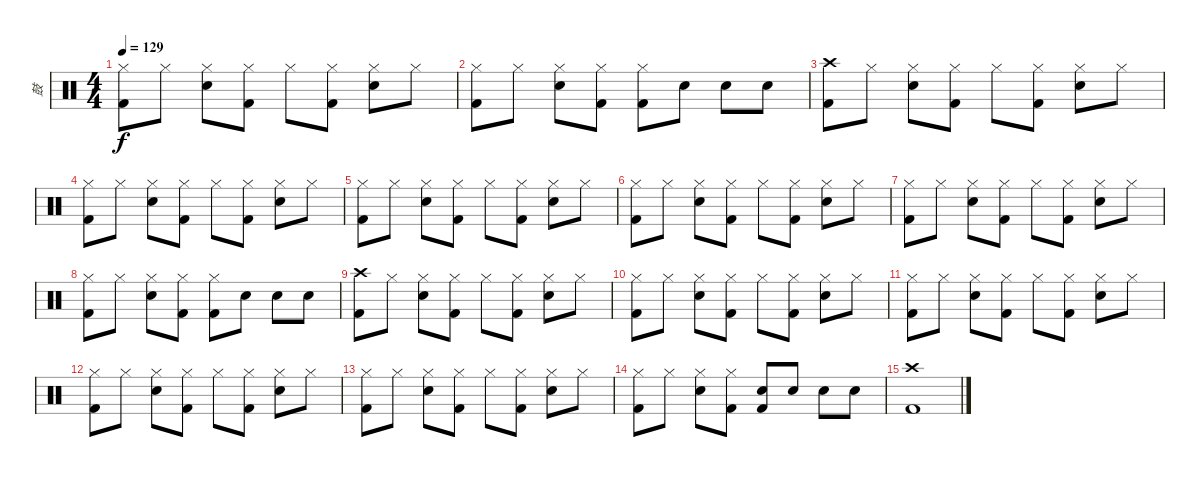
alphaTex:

\track ("鼓" "鼓") {instrument percussion}
\staff {score}
\articulation defaults
\ts (4 4)
\tempo 129
\clef neutral
\ks c
("Hi-Hat (closed)" "Kick (hit) 2").8{dy f} "Hi-Hat (closed)".8 ("Hi-Hat (closed)" "Snare (hit) 2").8 ("Hi-Hat (closed)" "Kick (hit) 2").8 "Hi-Hat (closed)".8 ("Hi-Hat (closed)" "Kick (hit) 2").8 ("Hi-Hat (closed)" "Snare (hit) 2").8 "Hi-Hat (closed)".8 |
("Hi-Hat (closed)" "Kick (hit) 2").8 "Hi-Hat (closed)".8 ("Hi-Hat (closed)" "Snare (hit) 2").8 ("Hi-Hat (closed)" "Kick (hit) 2").8 ("Hi-Hat (closed)" "Kick (hit) 2").8 "Snare (hit) 2".8 "Snare (hit) 2".8 "Snare (hit) 2".8 |
("Crash high (hit)" "Kick (hit) 2").8 "Hi-Hat (closed)".8 ("Hi-Hat (closed)" "Snare (hit) 2").8 ("Hi-Hat (closed)" "Kick (hit) 2").8 "Hi-Hat (closed)".8 ("Hi-Hat (closed)" "Kick (hit) 2").8 ("Hi-Hat (closed)" "Snare (hit) 2").8 "Hi-Hat (closed)".8 |
("Hi-Hat (closed)" "Kick (hit) 2").8 "Hi-Hat (closed)".8 ("Hi-Hat (closed)" "Snare (hit) 2").8 ("Hi-Hat (closed)" "Kick (hit) 2").8 "Hi-Hat (closed)".8 ("Hi-Hat (closed)" "Kick (hit) 2").8 ("Hi-Hat (closed)" "Snare (hit) 2").8 "Hi-Hat (closed)".8 |
("Hi-Hat (closed)" "Kick (hit) 2").8 "Hi-Hat (closed)".8 ("Hi-Hat (closed)" "Snare (hit) 2").8 ("Hi-Hat (closed)" "Kick (hit) 2").8 "Hi-Hat (closed)".8 ("Hi-Hat (closed)" "Kick (hit) 2").8 ("Hi-Hat (closed)" "Snare (hit) 2").8 "Hi-Hat (closed)".8 |
("Hi-Hat (closed)" "Kick (hit) 2").8 "Hi-Hat (closed)".8 ("Hi-Hat (closed)" "Snare (hit) 2").8 ("Hi-Hat (closed)" "Kick (hit) 2").8 "Hi-Hat (closed)".8 ("Hi-Hat (closed)" "Kick (hit) 2").8 ("Hi-Hat (closed)" "Snare (hit) 2").8 "Hi-Hat (closed)".8 |
("Hi-Hat (closed)" "Kick (hit) 2").8 "Hi-Hat (closed)".8 ("Hi-Hat (closed)" "Snare (hit) 2").8 ("Hi-Hat (closed)" "Kick (hit) 2").8 "Hi-Hat (closed)".8 ("Hi-Hat (closed)" "Kick (hit) 2").8 ("Hi-Hat (closed)" "Snare (hit) 2").8 "Hi-Hat (closed)".8 |
("Hi-Hat (closed)" "Kick (hit) 2").8 "Hi-Hat (closed)".8 ("Hi-Hat (closed)" "Snare (hit) 2").8 ("Hi-Hat (closed)" "Kick (hit) 2").8 ("Hi-Hat (closed)" "Kick (hit) 2").8 "Snare (hit) 2".8 "Snare (hit) 2".8 "Snare (hit) 2".8 |
("Crash high (hit)" "Kick (hit) 2").8 "Hi-Hat (closed)".8 ("Hi-Hat (closed)" "Snare (hit) 2").8 ("Hi-Hat (closed)" "Kick (hit) 2").8 "Hi-Hat (closed)".8 ("Hi-Hat (closed)" "Kick (hit) 2").8 ("Hi-Hat (closed)" "Snare (hit) 2").8 "Hi-Hat (closed)".8 |
("Hi-Hat (closed)" "Kick (hit) 2").8 "Hi-Hat (closed)".8 ("Hi-Hat (closed)" "Snare (hit) 2").8 ("Hi-Hat (closed)" "Kick (hit) 2").8 "Hi-Hat (closed)".8 ("Hi-Hat (closed)" "Kick (hit) 2").8 ("Hi-Hat (closed)" "Snare (hit) 2").8 "Hi-Hat (closed)".8 |
("Hi-Hat (closed)" "Kick (hit) 2").8 "Hi-Hat (closed)".8 ("Hi-Hat (closed)" "Snare (hit) 2").8 ("Hi-Hat (closed)" "Kick (hit) 2").8 "Hi-Hat (closed)".8 ("Hi-Hat (closed)" "Kick (hit) 2").8 ("Hi-Hat (closed)" "Snare (hit) 2").8 "Hi-Hat (closed)".8 |
("Hi-Hat (closed)" "Kick (hit) 2").8 "Hi-Hat (closed)".8 ("Hi-Hat (closed)" "Snare (hit) 2").8 ("Hi-Hat (closed)" "Kick (hit) 2").8 "Hi-Hat (closed)".8 ("Hi-Hat (closed)" "Kick (hit) 2").8 ("Hi-Hat (closed)" "Snare (hit) 2").8 "Hi-Hat (closed)".8 |
("Hi-Hat (closed)" "Kick (hit) 2").8 "Hi-Hat (closed)".8 ("Hi-Hat (closed)" "Snare (hit) 2").8 ("Hi-Hat (closed)" "Kick (hit) 2").8 "Hi-Hat (closed)".8 ("Hi-Hat (closed)" "Kick (hit) 2").8 ("Hi-Hat (closed)" "Snare (hit) 2").8 "Hi-Hat (closed)".8 |
("Hi-Hat (closed)" "Kick (hit) 2").8 "Hi-Hat (closed)".8 ("Hi-Hat (closed)" "Snare (hit) 2").8 ("Hi-Hat (closed)" "Kick (hit) 2").8 ("Snare (hit) 2" "Kick (hit) 2").8 "Snare (hit) 2".8 "Snare (hit) 2".8 "Snare (hit) 2".8 |
("Crash high (hit)" "Kick (hit) 2").1
